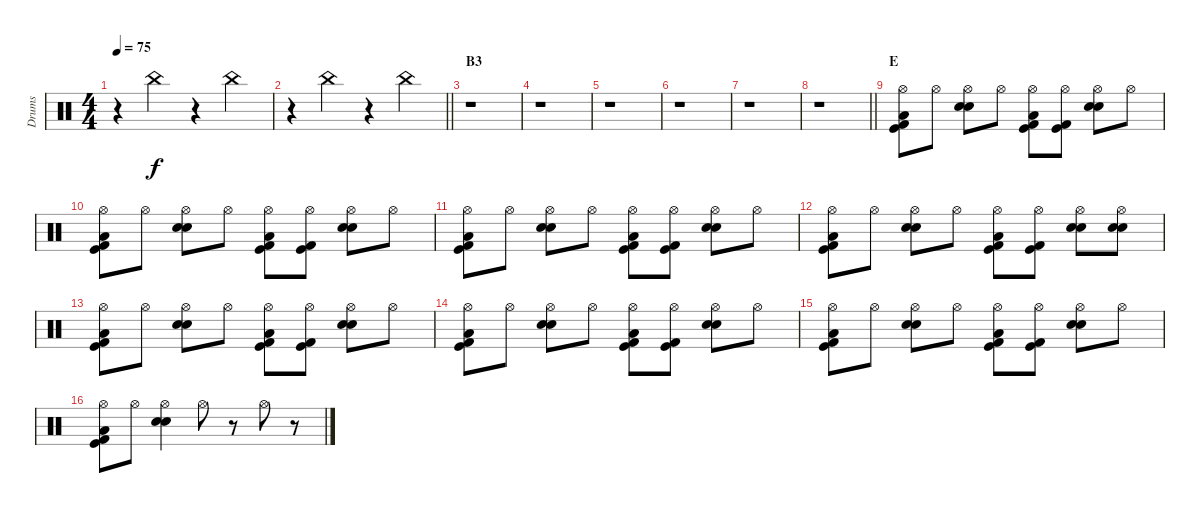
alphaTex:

\track ("Drums" "Drums") {instrument percussion}
\staff {score}
\articulation defaults
\ts (4 4)
\tempo 75
\clef neutral
\ks c
r.4{dy f} "China (hit)".4 r.4 "China (hit)".4 |
\barLineRight lightlight
r.4 "China (hit)".4 r.4 "China (hit)".4 |
\section ("" "B3")
r.1 |
r.1 |
r.1 |
r.1 |
r.1 |
\barLineRight lightlight
r.1 |
\section ("" "E")
("Low Floor Tom (hit)" "Hi-Hat (open)" "Kick (hit)" "Kick (hit) 2").8 "Hi-Hat (open)".8 ("Hi-Hat (open)" "Snare (hit) 2" "Electric Snare (hit)").8 "Hi-Hat (open)".8 ("Low Floor Tom (hit)" "Hi-Hat (open)" "Kick (hit)" "Kick (hit) 2").8 ("Hi-Hat (open)" "Kick (hit)" "Kick (hit) 2").8 ("Hi-Hat (open)" "Snare (hit) 2" "Electric Snare (hit)").8 "Hi-Hat (open)".8 |
("Low Floor Tom (hit)" "Hi-Hat (open)" "Kick (hit)" "Kick (hit) 2").8 "Hi-Hat (open)".8 ("Hi-Hat (open)" "Snare (hit) 2" "Electric Snare (hit)").8 "Hi-Hat (open)".8 ("Low Floor Tom (hit)" "Hi-Hat (open)" "Kick (hit)" "Kick (hit) 2").8 ("Hi-Hat (open)" "Kick (hit)" "Kick (hit) 2").8 ("Hi-Hat (open)" "Snare (hit) 2" "Electric Snare (hit)").8 "Hi-Hat (open)".8 |
("Low Floor Tom (hit)" "Hi-Hat (open)" "Kick (hit)" "Kick (hit) 2").8 "Hi-Hat (open)".8 ("Hi-Hat (open)" "Snare (hit) 2" "Electric Snare (hit)").8 "Hi-Hat (open)".8 ("Low Floor Tom (hit)" "Hi-Hat (open)" "Kick (hit)" "Kick (hit) 2").8 ("Hi-Hat (open)" "Kick (hit)" "Kick (hit) 2").8 ("Hi-Hat (open)" "Snare (hit) 2" "Electric Snare (hit)").8 "Hi-Hat (open)".8 |
("Low Floor Tom (hit)" "Hi-Hat (open)" "Kick (hit)" "Kick (hit) 2").8 "Hi-Hat (open)".8 ("Hi-Hat (open)" "Snare (hit) 2" "Electric Snare (hit)").8 "Hi-Hat (open)".8 ("Low Floor Tom (hit)" "Hi-Hat (open)" "Kick (hit)" "Kick (hit) 2").8 ("Hi-Hat (open)" "Kick (hit)" "Kick (hit) 2").8 ("Hi-Hat (open)" "Snare (hit) 2" "Electric Snare (hit)").8 ("Electric Snare (hit)" "Snare (hit) 2" "Hi-Hat (open)").8 |
("Low Floor Tom (hit)" "Hi-Hat (open)" "Kick (hit)" "Kick (hit) 2").8 "Hi-Hat (open)".8 ("Hi-Hat (open)" "Snare (hit) 2" "Electric Snare (hit)").8 "Hi-Hat (open)".8 ("Low Floor Tom (hit)" "Hi-Hat (open)" "Kick (hit)" "Kick (hit) 2").8 ("Hi-Hat (open)" "Kick (hit)" "Kick (hit) 2").8 ("Hi-Hat (open)" "Snare (hit) 2" "Electric Snare (hit)").8 "Hi-Hat (open)".8 |
("Low Floor Tom (hit)" "Hi-Hat (open)" "Kick (hit)" "Kick (hit) 2").8 "Hi-Hat (open)".8 ("Hi-Hat (open)" "Snare (hit) 2" "Electric Snare (hit)").8 "Hi-Hat (open)".8 ("Low Floor Tom (hit)" "Hi-Hat (open)" "Kick (hit)" "Kick (hit) 2").8 ("Hi-Hat (open)" "Kick (hit)" "Kick (hit) 2").8 ("Hi-Hat (open)" "Snare (hit) 2" "Electric Snare (hit)").8 "Hi-Hat (open)".8 |
("Low Floor Tom (hit)" "Hi-Hat (open)" "Kick (hit)" "Kick (hit) 2").8 "Hi-Hat (open)".8 ("Hi-Hat (open)" "Snare (hit) 2" "Electric Snare (hit)").8 "Hi-Hat (open)".8 ("Low Floor Tom (hit)" "Hi-Hat (open)" "Kick (hit)" "Kick (hit) 2").8 ("Hi-Hat (open)" "Kick (hit)" "Kick (hit) 2").8 ("Hi-Hat (open)" "Snare (hit) 2" "Electric Snare (hit)").8 "Hi-Hat (open)".8 |
("Low Floor Tom (hit)" "Hi-Hat (open)" "Kick (hit)" "Kick (hit) 2").8 "Hi-Hat (open)".8 ("Hi-Hat (open)" "Snare (hit) 2" "Electric Snare (hit)").4 "Hi-Hat (open)".8 r.8 "Hi-Hat (open)".8 r.8
